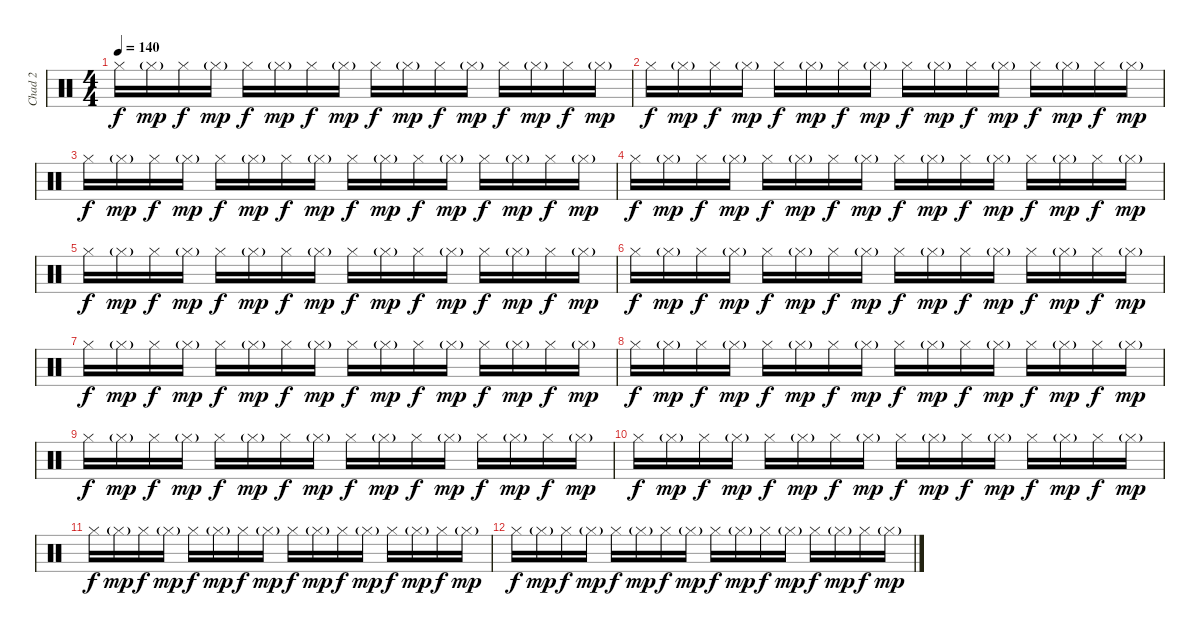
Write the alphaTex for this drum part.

\track ("Chad 2" "Chad 2") {instrument percussion}
\staff {score}
\articulation defaults
\ts (4 4)
\tempo 140
\clef neutral
\ks c "Hi-Hat (closed)".16{dy f} "Hi-Hat (closed)"{g}.16{dy mp} "Hi-Hat (closed)".16{dy f} "Hi-Hat (closed)"{g}.16{dy mp} "Hi-Hat (closed)".16{dy f} "Hi-Hat (closed)"{g}.16{dy mp} "Hi-Hat (closed)".16{dy f} "Hi-Hat (closed)"{g}.16{dy mp} "Hi-Hat (closed)".16{dy f} "Hi-Hat (closed)"{g}.16{dy mp} "Hi-Hat (closed)".16{dy f} "Hi-Hat (closed)"{g}.16{dy mp} "Hi-Hat (closed)".16{dy f} "Hi-Hat (closed)"{g}.16{dy mp} "Hi-Hat (closed)".16{dy f} "Hi-Hat (closed)"{g}.16{dy mp}
|
"Hi-Hat (closed)".16{dy f} "Hi-Hat (closed)"{g}.16{dy mp} "Hi-Hat (closed)".16{dy f} "Hi-Hat (closed)"{g}.16{dy mp} "Hi-Hat (closed)".16{dy f} "Hi-Hat (closed)"{g}.16{dy mp} "Hi-Hat (closed)".16{dy f} "Hi-Hat (closed)"{g}.16{dy mp} "Hi-Hat (closed)".16{dy f} "Hi-Hat (closed)"{g}.16{dy mp} "Hi-Hat (closed)".16{dy f} "Hi-Hat (closed)"{g}.16{dy mp} "Hi-Hat (closed)".16{dy f} "Hi-Hat (closed)"{g}.16{dy mp} "Hi-Hat (closed)".16{dy f} "Hi-Hat (closed)"{g}.16{dy mp} |
"Hi-Hat (closed)".16{dy f} "Hi-Hat (closed)"{g}.16{dy mp} "Hi-Hat (closed)".16{dy f} "Hi-Hat (closed)"{g}.16{dy mp} "Hi-Hat (closed)".16{dy f} "Hi-Hat (closed)"{g}.16{dy mp} "Hi-Hat (closed)".16{dy f} "Hi-Hat (closed)"{g}.16{dy mp} "Hi-Hat (closed)".16{dy f} "Hi-Hat (closed)"{g}.16{dy mp} "Hi-Hat (closed)".16{dy f} "Hi-Hat (closed)"{g}.16{dy mp} "Hi-Hat (closed)".16{dy f} "Hi-Hat (closed)"{g}.16{dy mp} "Hi-Hat (closed)".16{dy f} "Hi-Hat (closed)"{g}.16{dy mp} |
"Hi-Hat (closed)".16{dy f} "Hi-Hat (closed)"{g}.16{dy mp} "Hi-Hat (closed)".16{dy f} "Hi-Hat (closed)"{g}.16{dy mp} "Hi-Hat (closed)".16{dy f} "Hi-Hat (closed)"{g}.16{dy mp} "Hi-Hat (closed)".16{dy f} "Hi-Hat (closed)"{g}.16{dy mp} "Hi-Hat (closed)".16{dy f} "Hi-Hat (closed)"{g}.16{dy mp} "Hi-Hat (closed)".16{dy f} "Hi-Hat (closed)"{g}.16{dy mp} "Hi-Hat (closed)".16{dy f} "Hi-Hat (closed)"{g}.16{dy mp} "Hi-Hat (closed)".16{dy f} "Hi-Hat (closed)"{g}.16{dy mp} |
"Hi-Hat (closed)".16{dy f} "Hi-Hat (closed)"{g}.16{dy mp} "Hi-Hat (closed)".16{dy f} "Hi-Hat (closed)"{g}.16{dy mp} "Hi-Hat (closed)".16{dy f} "Hi-Hat (closed)"{g}.16{dy mp} "Hi-Hat (closed)".16{dy f} "Hi-Hat (closed)"{g}.16{dy mp} "Hi-Hat (closed)".16{dy f} "Hi-Hat (closed)"{g}.16{dy mp} "Hi-Hat (closed)".16{dy f} "Hi-Hat (closed)"{g}.16{dy mp} "Hi-Hat (closed)".16{dy f} "Hi-Hat (closed)"{g}.16{dy mp} "Hi-Hat (closed)".16{dy f} "Hi-Hat (closed)"{g}.16{dy mp} |
"Hi-Hat (closed)".16{dy f} "Hi-Hat (closed)"{g}.16{dy mp} "Hi-Hat (closed)".16{dy f} "Hi-Hat (closed)"{g}.16{dy mp} "Hi-Hat (closed)".16{dy f} "Hi-Hat (closed)"{g}.16{dy mp} "Hi-Hat (closed)".16{dy f} "Hi-Hat (closed)"{g}.16{dy mp} "Hi-Hat (closed)".16{dy f} "Hi-Hat (closed)"{g}.16{dy mp} "Hi-Hat (closed)".16{dy f} "Hi-Hat (closed)"{g}.16{dy mp} "Hi-Hat (closed)".16{dy f} "Hi-Hat (closed)"{g}.16{dy mp} "Hi-Hat (closed)".16{dy f} "Hi-Hat (closed)"{g}.16{dy mp} |
"Hi-Hat (closed)".16{dy f} "Hi-Hat (closed)"{g}.16{dy mp} "Hi-Hat (closed)".16{dy f} "Hi-Hat (closed)"{g}.16{dy mp} "Hi-Hat (closed)".16{dy f} "Hi-Hat (closed)"{g}.16{dy mp} "Hi-Hat (closed)".16{dy f} "Hi-Hat (closed)"{g}.16{dy mp} "Hi-Hat (closed)".16{dy f} "Hi-Hat (closed)"{g}.16{dy mp} "Hi-Hat (closed)".16{dy f} "Hi-Hat (closed)"{g}.16{dy mp} "Hi-Hat (closed)".16{dy f} "Hi-Hat (closed)"{g}.16{dy mp} "Hi-Hat (closed)".16{dy f} "Hi-Hat (closed)"{g}.16{dy mp} |
"Hi-Hat (closed)".16{dy f} "Hi-Hat (closed)"{g}.16{dy mp} "Hi-Hat (closed)".16{dy f} "Hi-Hat (closed)"{g}.16{dy mp} "Hi-Hat (closed)".16{dy f} "Hi-Hat (closed)"{g}.16{dy mp} "Hi-Hat (closed)".16{dy f} "Hi-Hat (closed)"{g}.16{dy mp} "Hi-Hat (closed)".16{dy f} "Hi-Hat (closed)"{g}.16{dy mp} "Hi-Hat (closed)".16{dy f} "Hi-Hat (closed)"{g}.16{dy mp} "Hi-Hat (closed)".16{dy f} "Hi-Hat (closed)"{g}.16{dy mp} "Hi-Hat (closed)".16{dy f} "Hi-Hat (closed)"{g}.16{dy mp} |
"Hi-Hat (closed)".16{dy f} "Hi-Hat (closed)"{g}.16{dy mp} "Hi-Hat (closed)".16{dy f} "Hi-Hat (closed)"{g}.16{dy mp} "Hi-Hat (closed)".16{dy f} "Hi-Hat (closed)"{g}.16{dy mp} "Hi-Hat (closed)".16{dy f} "Hi-Hat (closed)"{g}.16{dy mp} "Hi-Hat (closed)".16{dy f} "Hi-Hat (closed)"{g}.16{dy mp} "Hi-Hat (closed)".16{dy f} "Hi-Hat (closed)"{g}.16{dy mp} "Hi-Hat (closed)".16{dy f} "Hi-Hat (closed)"{g}.16{dy mp} "Hi-Hat (closed)".16{dy f} "Hi-Hat (closed)"{g}.16{dy mp} |
"Hi-Hat (closed)".16{dy f} "Hi-Hat (closed)"{g}.16{dy mp} "Hi-Hat (closed)".16{dy f} "Hi-Hat (closed)"{g}.16{dy mp} "Hi-Hat (closed)".16{dy f} "Hi-Hat (closed)"{g}.16{dy mp} "Hi-Hat (closed)".16{dy f} "Hi-Hat (closed)"{g}.16{dy mp} "Hi-Hat (closed)".16{dy f} "Hi-Hat (closed)"{g}.16{dy mp} "Hi-Hat (closed)".16{dy f} "Hi-Hat (closed)"{g}.16{dy mp} "Hi-Hat (closed)".16{dy f} "Hi-Hat (closed)"{g}.16{dy mp} "Hi-Hat (closed)".16{dy f} "Hi-Hat (closed)"{g}.16{dy mp} |
"Hi-Hat (closed)".16{dy f} "Hi-Hat (closed)"{g}.16{dy mp} "Hi-Hat (closed)".16{dy f} "Hi-Hat (closed)"{g}.16{dy mp} "Hi-Hat (closed)".16{dy f} "Hi-Hat (closed)"{g}.16{dy mp} "Hi-Hat (closed)".16{dy f} "Hi-Hat (closed)"{g}.16{dy mp} "Hi-Hat (closed)".16{dy f} "Hi-Hat (closed)"{g}.16{dy mp} "Hi-Hat (closed)".16{dy f} "Hi-Hat (closed)"{g}.16{dy mp} "Hi-Hat (closed)".16{dy f} "Hi-Hat (closed)"{g}.16{dy mp} "Hi-Hat (closed)".16{dy f} "Hi-Hat (closed)"{g}.16{dy mp} |
"Hi-Hat (closed)".16{dy f} "Hi-Hat (closed)"{g}.16{dy mp} "Hi-Hat (closed)".16{dy f} "Hi-Hat (closed)"{g}.16{dy mp} "Hi-Hat (closed)".16{dy f} "Hi-Hat (closed)"{g}.16{dy mp} "Hi-Hat (closed)".16{dy f} "Hi-Hat (closed)"{g}.16{dy mp} "Hi-Hat (closed)".16{dy f} "Hi-Hat (closed)"{g}.16{dy mp} "Hi-Hat (closed)".16{dy f} "Hi-Hat (closed)"{g}.16{dy mp} "Hi-Hat (closed)".16{dy f} "Hi-Hat (closed)"{g}.16{dy mp} "Hi-Hat (closed)".16{dy f} "Hi-Hat (closed)"{g}.16{dy mp}
